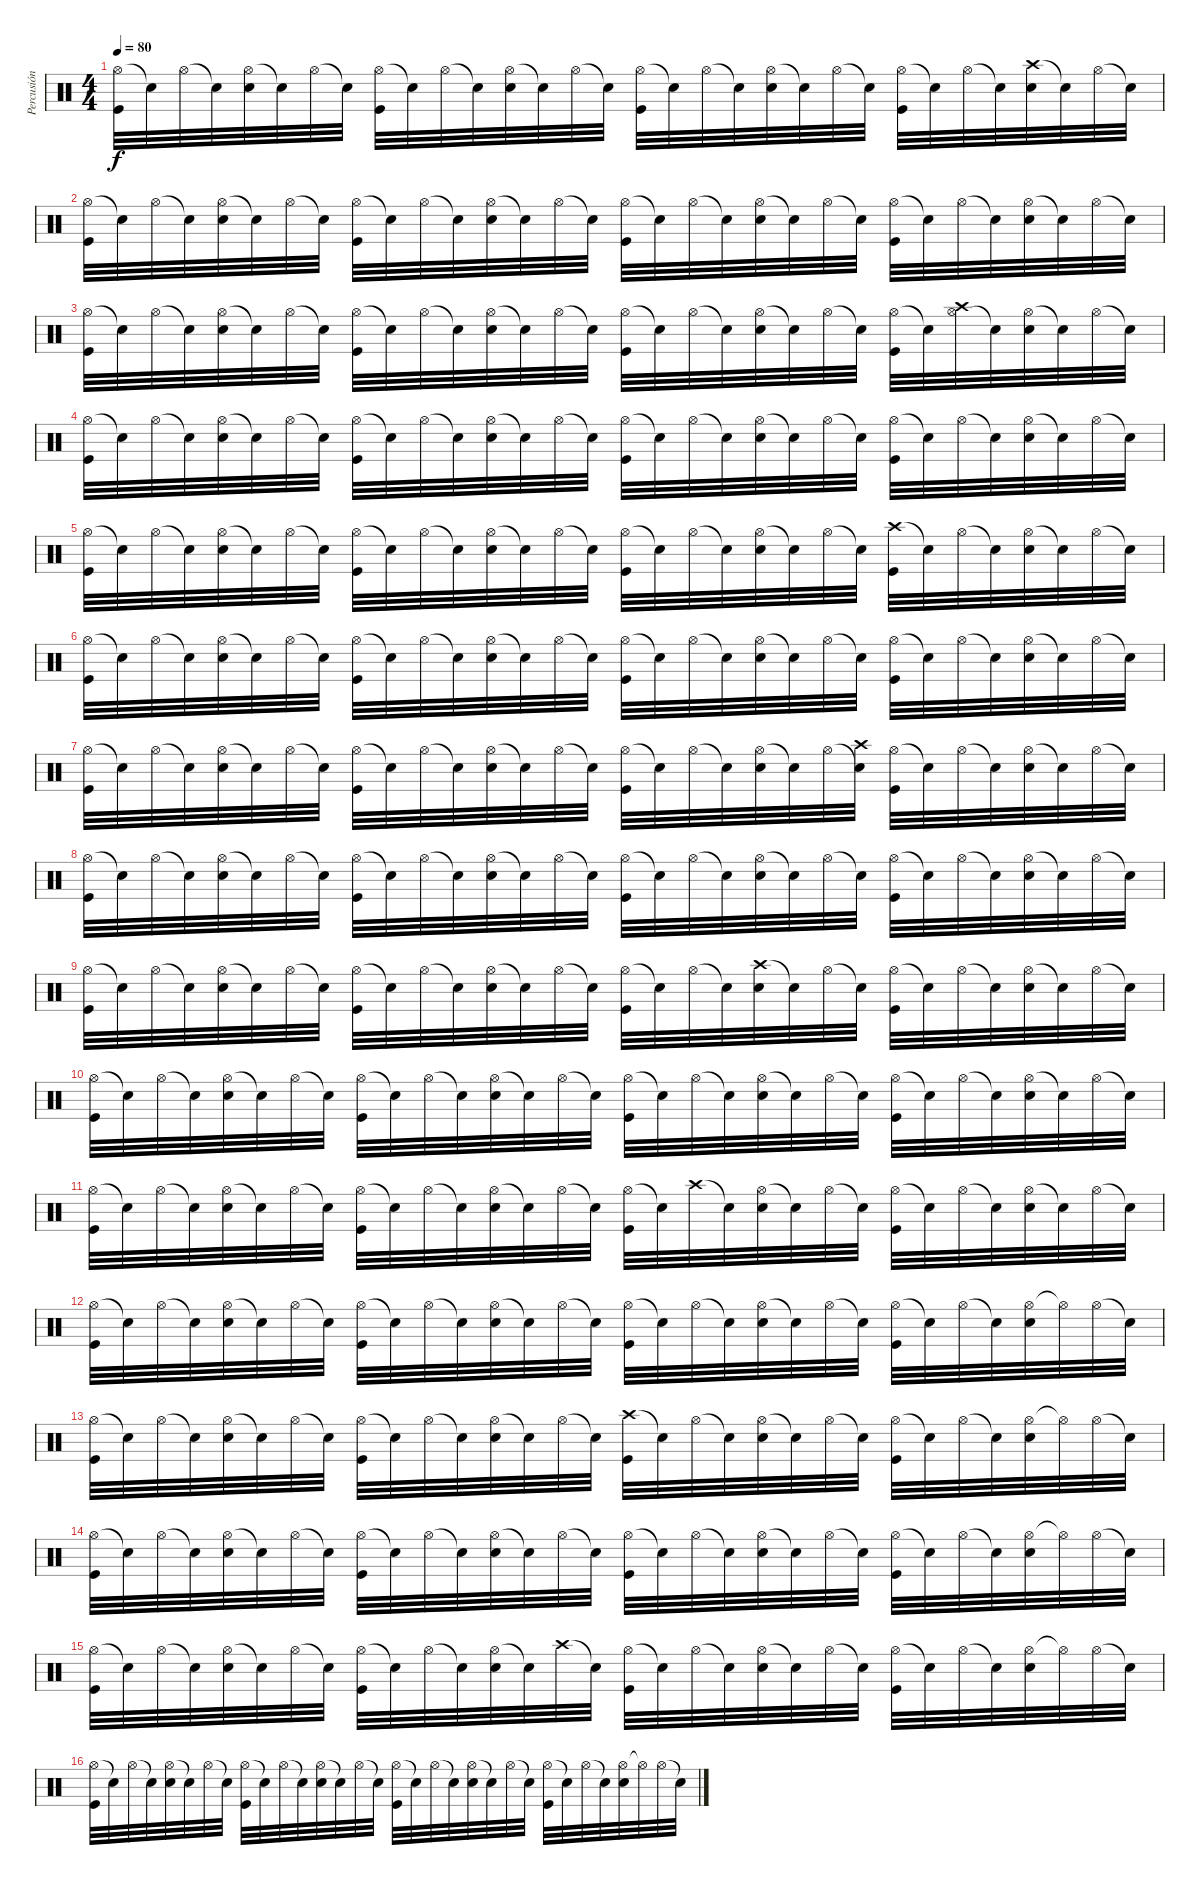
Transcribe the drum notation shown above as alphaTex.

\track ("Percusión" "Percusión") {instrument percussion}
\staff {score}
\articulation defaults
\ts (4 4)
\tempo 80
\clef neutral
\ks c
("Hi-Hat (open)" "Kick (hit)").32{dy f} "Snare (hit)"{t}.32 "Hi-Hat (open)".32 "Snare (hit)"{t}.32 ("Hi-Hat (open)" "Electric Snare (hit)").32 "Snare (hit)"{t}.32 "Hi-Hat (open)".32 "Snare (hit)"{t}.32 ("Hi-Hat (open)" "Kick (hit)").32 "Snare (hit)"{t}.32 "Hi-Hat (open)".32 "Snare (hit)"{t}.32 ("Hi-Hat (open)" "Electric Snare (hit)").32 "Snare (hit)"{t}.32 "Hi-Hat (open)".32 "Snare (hit)"{t}.32 ("Hi-Hat (open)" "Kick (hit)").32 "Snare (hit)"{t}.32 "Hi-Hat (open)".32 "Snare (hit)"{t}.32 ("Hi-Hat (open)" "Electric Snare (hit)").32 "Snare (hit)"{t}.32 "Hi-Hat (open)".32 "Snare (hit)"{t}.32 ("Hi-Hat (open)" "Kick (hit)").32 "Snare (hit)"{t}.32 "Hi-Hat (open)".32 "Snare (hit)"{t}.32 ("Crash high (hit)" "Electric Snare (hit)").32 "Snare (hit)"{t}.32 "Hi-Hat (open)".32 "Snare (hit)"{t}.32 |
("Hi-Hat (open)" "Kick (hit)").32 "Snare (hit)"{t}.32 "Hi-Hat (open)".32 "Snare (hit)"{t}.32 ("Hi-Hat (open)" "Electric Snare (hit)").32 "Snare (hit)"{t}.32 "Hi-Hat (open)".32 "Snare (hit)"{t}.32 ("Hi-Hat (open)" "Kick (hit)").32 "Snare (hit)"{t}.32 "Hi-Hat (open)".32 "Snare (hit)"{t}.32 ("Hi-Hat (open)" "Electric Snare (hit)").32 "Snare (hit)"{t}.32 "Hi-Hat (open)".32 "Snare (hit)"{t}.32 ("Hi-Hat (open)" "Kick (hit)").32 "Snare (hit)"{t}.32 "Hi-Hat (open)".32 "Snare (hit)"{t}.32 ("Hi-Hat (open)" "Electric Snare (hit)").32 "Snare (hit)"{t}.32 "Hi-Hat (open)".32 "Snare (hit)"{t}.32 ("Hi-Hat (open)" "Kick (hit)").32 "Snare (hit)"{t}.32 "Hi-Hat (open)".32 "Snare (hit)"{t}.32 ("Hi-Hat (open)" "Electric Snare (hit)").32 "Snare (hit)"{t}.32 "Hi-Hat (open)".32 "Snare (hit)"{t}.32 |
("Hi-Hat (open)" "Kick (hit)").32 "Snare (hit)"{t}.32 "Hi-Hat (open)".32 "Snare (hit)"{t}.32 ("Hi-Hat (open)" "Electric Snare (hit)").32 "Snare (hit)"{t}.32 "Hi-Hat (open)".32 "Snare (hit)"{t}.32 ("Hi-Hat (open)" "Kick (hit)").32 "Snare (hit)"{t}.32 "Hi-Hat (open)".32 "Snare (hit)"{t}.32 ("Hi-Hat (open)" "Electric Snare (hit)").32 "Snare (hit)"{t}.32 "Hi-Hat (open)".32 "Snare (hit)"{t}.32 ("Hi-Hat (open)" "Kick (hit)").32 "Snare (hit)"{t}.32 "Hi-Hat (open)".32 "Snare (hit)"{t}.32 ("Hi-Hat (open)" "Electric Snare (hit)").32 "Snare (hit)"{t}.32 "Hi-Hat (open)".32 "Snare (hit)"{t}.32 ("Hi-Hat (open)" "Kick (hit)").32 "Snare (hit)"{t}.32 ("Hi-Hat (open)" "Crash high (hit)").32 "Snare (hit)"{t}.32 ("Hi-Hat (open)" "Electric Snare (hit)").32 "Snare (hit)"{t}.32 "Hi-Hat (open)".32 "Snare (hit)"{t}.32 |
("Hi-Hat (open)" "Kick (hit)").32 "Snare (hit)"{t}.32 "Hi-Hat (open)".32 "Snare (hit)"{t}.32 ("Hi-Hat (open)" "Electric Snare (hit)").32 "Snare (hit)"{t}.32 "Hi-Hat (open)".32 "Snare (hit)"{t}.32 ("Hi-Hat (open)" "Kick (hit)").32 "Snare (hit)"{t}.32 "Hi-Hat (open)".32 "Snare (hit)"{t}.32 ("Hi-Hat (open)" "Electric Snare (hit)").32 "Snare (hit)"{t}.32 "Hi-Hat (open)".32 "Snare (hit)"{t}.32 ("Hi-Hat (open)" "Kick (hit)").32 "Snare (hit)"{t}.32 "Hi-Hat (open)".32 "Snare (hit)"{t}.32 ("Hi-Hat (open)" "Electric Snare (hit)").32 "Snare (hit)"{t}.32 "Hi-Hat (open)".32 "Snare (hit)"{t}.32 ("Hi-Hat (open)" "Kick (hit)").32 "Snare (hit)"{t}.32 "Hi-Hat (open)".32 "Snare (hit)"{t}.32 ("Hi-Hat (open)" "Electric Snare (hit)").32 "Snare (hit)"{t}.32 "Hi-Hat (open)".32 "Snare (hit)"{t}.32 |
("Hi-Hat (open)" "Kick (hit)").32 "Snare (hit)"{t}.32 "Hi-Hat (open)".32 "Snare (hit)"{t}.32 ("Hi-Hat (open)" "Electric Snare (hit)").32 "Snare (hit)"{t}.32 "Hi-Hat (open)".32 "Snare (hit)"{t}.32 ("Hi-Hat (open)" "Kick (hit)").32 "Snare (hit)"{t}.32 "Hi-Hat (open)".32 "Snare (hit)"{t}.32 ("Hi-Hat (open)" "Electric Snare (hit)").32 "Snare (hit)"{t}.32 "Hi-Hat (open)".32 "Snare (hit)"{t}.32 ("Hi-Hat (open)" "Kick (hit)").32 "Snare (hit)"{t}.32 "Hi-Hat (open)".32 "Snare (hit)"{t}.32 ("Hi-Hat (open)" "Electric Snare (hit)").32 "Snare (hit)"{t}.32 "Hi-Hat (open)".32 "Snare (hit)"{t}.32 ("Crash high (hit)" "Kick (hit)").32 "Snare (hit)"{t}.32 "Hi-Hat (open)".32 "Snare (hit)"{t}.32 ("Hi-Hat (open)" "Electric Snare (hit)").32 "Snare (hit)"{t}.32 "Hi-Hat (open)".32 "Snare (hit)"{t}.32 |
("Hi-Hat (open)" "Kick (hit)").32 "Snare (hit)"{t}.32 "Hi-Hat (open)".32 "Snare (hit)"{t}.32 ("Hi-Hat (open)" "Electric Snare (hit)").32 "Snare (hit)"{t}.32 "Hi-Hat (open)".32 "Snare (hit)"{t}.32 ("Hi-Hat (open)" "Kick (hit)").32 "Snare (hit)"{t}.32 "Hi-Hat (open)".32 "Snare (hit)"{t}.32 ("Hi-Hat (open)" "Electric Snare (hit)").32 "Snare (hit)"{t}.32 "Hi-Hat (open)".32 "Snare (hit)"{t}.32 ("Hi-Hat (open)" "Kick (hit)").32 "Snare (hit)"{t}.32 "Hi-Hat (open)".32 "Snare (hit)"{t}.32 ("Hi-Hat (open)" "Electric Snare (hit)").32 "Snare (hit)"{t}.32 "Hi-Hat (open)".32 "Snare (hit)"{t}.32 ("Hi-Hat (open)" "Kick (hit)").32 "Snare (hit)"{t}.32 "Hi-Hat (open)".32 "Snare (hit)"{t}.32 ("Hi-Hat (open)" "Electric Snare (hit)").32 "Snare (hit)"{t}.32 "Hi-Hat (open)".32 "Snare (hit)"{t}.32 |
("Hi-Hat (open)" "Kick (hit)").32 "Snare (hit)"{t}.32 "Hi-Hat (open)".32 "Snare (hit)"{t}.32 ("Hi-Hat (open)" "Electric Snare (hit)").32 "Snare (hit)"{t}.32 "Hi-Hat (open)".32 "Snare (hit)"{t}.32 ("Hi-Hat (open)" "Kick (hit)").32 "Snare (hit)"{t}.32 "Hi-Hat (open)".32 "Snare (hit)"{t}.32 ("Hi-Hat (open)" "Electric Snare (hit)").32 "Snare (hit)"{t}.32 "Hi-Hat (open)".32 "Snare (hit)"{t}.32 ("Hi-Hat (open)" "Kick (hit)").32 "Snare (hit)"{t}.32 "Hi-Hat (open)".32 "Snare (hit)"{t}.32 ("Hi-Hat (open)" "Electric Snare (hit)").32 "Snare (hit)"{t}.32 "Hi-Hat (open)".32 ("Snare (hit)"{t} "Crash high (hit)").32 ("Hi-Hat (open)" "Kick (hit)").32 "Snare (hit)"{t}.32 "Hi-Hat (open)".32 "Snare (hit)"{t}.32 ("Hi-Hat (open)" "Electric Snare (hit)").32 "Snare (hit)"{t}.32 "Hi-Hat (open)".32 "Snare (hit)"{t}.32 |
("Hi-Hat (open)" "Kick (hit)").32 "Snare (hit)"{t}.32 "Hi-Hat (open)".32 "Snare (hit)"{t}.32 ("Hi-Hat (open)" "Electric Snare (hit)").32 "Snare (hit)"{t}.32 "Hi-Hat (open)".32 "Snare (hit)"{t}.32 ("Hi-Hat (open)" "Kick (hit)").32 "Snare (hit)"{t}.32 "Hi-Hat (open)".32 "Snare (hit)"{t}.32 ("Hi-Hat (open)" "Electric Snare (hit)").32 "Snare (hit)"{t}.32 "Hi-Hat (open)".32 "Snare (hit)"{t}.32 ("Hi-Hat (open)" "Kick (hit)").32 "Snare (hit)"{t}.32 "Hi-Hat (open)".32 "Snare (hit)"{t}.32 ("Hi-Hat (open)" "Electric Snare (hit)").32 "Snare (hit)"{t}.32 "Hi-Hat (open)".32 "Snare (hit)"{t}.32 ("Hi-Hat (open)" "Kick (hit)").32 "Snare (hit)"{t}.32 "Hi-Hat (open)".32 "Snare (hit)"{t}.32 ("Hi-Hat (open)" "Electric Snare (hit)").32 "Snare (hit)"{t}.32 "Hi-Hat (open)".32 "Snare (hit)"{t}.32 |
("Hi-Hat (open)" "Kick (hit)").32 "Snare (hit)"{t}.32 "Hi-Hat (open)".32 "Snare (hit)"{t}.32 ("Hi-Hat (open)" "Electric Snare (hit)").32 "Snare (hit)"{t}.32 "Hi-Hat (open)".32 "Snare (hit)"{t}.32 ("Hi-Hat (open)" "Kick (hit)").32 "Snare (hit)"{t}.32 "Hi-Hat (open)".32 "Snare (hit)"{t}.32 ("Hi-Hat (open)" "Electric Snare (hit)").32 "Snare (hit)"{t}.32 "Hi-Hat (open)".32 "Snare (hit)"{t}.32 ("Hi-Hat (open)" "Kick (hit)").32 "Snare (hit)"{t}.32 "Hi-Hat (open)".32 "Snare (hit)"{t}.32 ("Crash high (hit)" "Electric Snare (hit)").32 "Snare (hit)"{t}.32 "Hi-Hat (open)".32 "Snare (hit)"{t}.32 ("Hi-Hat (open)" "Kick (hit)").32 "Snare (hit)"{t}.32 "Hi-Hat (open)".32 "Snare (hit)"{t}.32 ("Hi-Hat (open)" "Electric Snare (hit)").32 "Snare (hit)"{t}.32 "Hi-Hat (open)".32 "Snare (hit)"{t}.32 |
("Hi-Hat (open)" "Kick (hit)").32 "Snare (hit)"{t}.32 "Hi-Hat (open)".32 "Snare (hit)"{t}.32 ("Hi-Hat (open)" "Electric Snare (hit)").32 "Snare (hit)"{t}.32 "Hi-Hat (open)".32 "Snare (hit)"{t}.32 ("Hi-Hat (open)" "Kick (hit)").32 "Snare (hit)"{t}.32 "Hi-Hat (open)".32 "Snare (hit)"{t}.32 ("Hi-Hat (open)" "Electric Snare (hit)").32 "Snare (hit)"{t}.32 "Hi-Hat (open)".32 "Snare (hit)"{t}.32 ("Hi-Hat (open)" "Kick (hit)").32 "Snare (hit)"{t}.32 "Hi-Hat (open)".32 "Snare (hit)"{t}.32 ("Hi-Hat (open)" "Electric Snare (hit)").32 "Snare (hit)"{t}.32 "Hi-Hat (open)".32 "Snare (hit)"{t}.32 ("Hi-Hat (open)" "Kick (hit)").32 "Snare (hit)"{t}.32 "Hi-Hat (open)".32 "Snare (hit)"{t}.32 ("Hi-Hat (open)" "Electric Snare (hit)").32 "Snare (hit)"{t}.32 "Hi-Hat (open)".32 "Snare (hit)"{t}.32 |
("Hi-Hat (open)" "Kick (hit)").32 "Snare (hit)"{t}.32 "Hi-Hat (open)".32 "Snare (hit)"{t}.32 ("Hi-Hat (open)" "Electric Snare (hit)").32 "Snare (hit)"{t}.32 "Hi-Hat (open)".32 "Snare (hit)"{t}.32 ("Hi-Hat (open)" "Kick (hit)").32 "Snare (hit)"{t}.32 "Hi-Hat (open)".32 "Snare (hit)"{t}.32 ("Hi-Hat (open)" "Electric Snare (hit)").32 "Snare (hit)"{t}.32 "Hi-Hat (open)".32 "Snare (hit)"{t}.32 ("Hi-Hat (open)" "Kick (hit)").32 "Snare (hit)"{t}.32 "Crash high (hit)".32 "Snare (hit)"{t}.32 ("Hi-Hat (open)" "Electric Snare (hit)").32 "Snare (hit)"{t}.32 "Hi-Hat (open)".32 "Snare (hit)"{t}.32 ("Hi-Hat (open)" "Kick (hit)").32 "Snare (hit)"{t}.32 "Hi-Hat (open)".32 "Snare (hit)"{t}.32 ("Hi-Hat (open)" "Electric Snare (hit)").32 "Snare (hit)"{t}.32 "Hi-Hat (open)".32 "Snare (hit)"{t}.32 |
("Hi-Hat (open)" "Kick (hit)").32 "Snare (hit)"{t}.32 "Hi-Hat (open)".32 "Snare (hit)"{t}.32 ("Hi-Hat (open)" "Electric Snare (hit)").32 "Snare (hit)"{t}.32 "Hi-Hat (open)".32 "Snare (hit)"{t}.32 ("Hi-Hat (open)" "Kick (hit)").32 "Snare (hit)"{t}.32 "Hi-Hat (open)".32 "Snare (hit)"{t}.32 ("Hi-Hat (open)" "Electric Snare (hit)").32 "Snare (hit)"{t}.32 "Hi-Hat (open)".32 "Snare (hit)"{t}.32 ("Hi-Hat (open)" "Kick (hit)").32 "Snare (hit)"{t}.32 "Hi-Hat (open)".32 "Snare (hit)"{t}.32 ("Hi-Hat (open)" "Electric Snare (hit)").32 "Snare (hit)"{t}.32 "Hi-Hat (open)".32 "Snare (hit)"{t}.32 ("Hi-Hat (open)" "Kick (hit)").32 "Snare (hit)"{t}.32 "Hi-Hat (open)".32 "Snare (hit)"{t}.32 ("Hi-Hat (open)" "Electric Snare (hit)").32 "Hi-Hat (open)"{t}.32 "Hi-Hat (open)".32 "Snare (hit)"{t}.32 |
("Hi-Hat (open)" "Kick (hit)").32 "Snare (hit)"{t}.32 "Hi-Hat (open)".32 "Snare (hit)"{t}.32 ("Hi-Hat (open)" "Electric Snare (hit)").32 "Snare (hit)"{t}.32 "Hi-Hat (open)".32 "Snare (hit)"{t}.32 ("Hi-Hat (open)" "Kick (hit)").32 "Snare (hit)"{t}.32 "Hi-Hat (open)".32 "Snare (hit)"{t}.32 ("Hi-Hat (open)" "Electric Snare (hit)").32 "Snare (hit)"{t}.32 "Hi-Hat (open)".32 "Snare (hit)"{t}.32 ("Crash high (hit)" "Kick (hit)").32 "Snare (hit)"{t}.32 "Hi-Hat (open)".32 "Snare (hit)"{t}.32 ("Hi-Hat (open)" "Electric Snare (hit)").32 "Snare (hit)"{t}.32 "Hi-Hat (open)".32 "Snare (hit)"{t}.32 ("Hi-Hat (open)" "Kick (hit)").32 "Snare (hit)"{t}.32 "Hi-Hat (open)".32 "Snare (hit)"{t}.32 ("Hi-Hat (open)" "Electric Snare (hit)").32 "Hi-Hat (open)"{t}.32 "Hi-Hat (open)".32 "Snare (hit)"{t}.32 |
("Hi-Hat (open)" "Kick (hit)").32 "Snare (hit)"{t}.32 "Hi-Hat (open)".32 "Snare (hit)"{t}.32 ("Hi-Hat (open)" "Electric Snare (hit)").32 "Snare (hit)"{t}.32 "Hi-Hat (open)".32 "Snare (hit)"{t}.32 ("Hi-Hat (open)" "Kick (hit)").32 "Snare (hit)"{t}.32 "Hi-Hat (open)".32 "Snare (hit)"{t}.32 ("Hi-Hat (open)" "Electric Snare (hit)").32 "Snare (hit)"{t}.32 "Hi-Hat (open)".32 "Snare (hit)"{t}.32 ("Hi-Hat (open)" "Kick (hit)").32 "Snare (hit)"{t}.32 "Hi-Hat (open)".32 "Snare (hit)"{t}.32 ("Hi-Hat (open)" "Electric Snare (hit)").32 "Snare (hit)"{t}.32 "Hi-Hat (open)".32 "Snare (hit)"{t}.32 ("Hi-Hat (open)" "Kick (hit)").32 "Snare (hit)"{t}.32 "Hi-Hat (open)".32 "Snare (hit)"{t}.32 ("Hi-Hat (open)" "Electric Snare (hit)").32 "Hi-Hat (open)"{t}.32 "Hi-Hat (open)".32 "Snare (hit)"{t}.32 |
("Hi-Hat (open)" "Kick (hit)").32 "Snare (hit)"{t}.32 "Hi-Hat (open)".32 "Snare (hit)"{t}.32 ("Hi-Hat (open)" "Electric Snare (hit)").32 "Snare (hit)"{t}.32 "Hi-Hat (open)".32 "Snare (hit)"{t}.32 ("Hi-Hat (open)" "Kick (hit)").32 "Snare (hit)"{t}.32 "Hi-Hat (open)".32 "Snare (hit)"{t}.32 ("Hi-Hat (open)" "Electric Snare (hit)").32 "Snare (hit)"{t}.32 "Crash high (hit)".32 "Snare (hit)"{t}.32 ("Hi-Hat (open)" "Kick (hit)").32 "Snare (hit)"{t}.32 "Hi-Hat (open)".32 "Snare (hit)"{t}.32 ("Hi-Hat (open)" "Electric Snare (hit)").32 "Snare (hit)"{t}.32 "Hi-Hat (open)".32 "Snare (hit)"{t}.32 ("Hi-Hat (open)" "Kick (hit)").32 "Snare (hit)"{t}.32 "Hi-Hat (open)".32 "Snare (hit)"{t}.32 ("Hi-Hat (open)" "Electric Snare (hit)").32 "Hi-Hat (open)"{t}.32 "Hi-Hat (open)".32 "Snare (hit)"{t}.32 |
("Hi-Hat (open)" "Kick (hit)").32 "Snare (hit)"{t}.32 "Hi-Hat (open)".32 "Snare (hit)"{t}.32 ("Hi-Hat (open)" "Electric Snare (hit)").32 "Snare (hit)"{t}.32 "Hi-Hat (open)".32 "Snare (hit)"{t}.32 ("Hi-Hat (open)" "Kick (hit)").32 "Snare (hit)"{t}.32 "Hi-Hat (open)".32 "Snare (hit)"{t}.32 ("Hi-Hat (open)" "Electric Snare (hit)").32 "Snare (hit)"{t}.32 "Hi-Hat (open)".32 "Snare (hit)"{t}.32 ("Hi-Hat (open)" "Kick (hit)").32 "Snare (hit)"{t}.32 "Hi-Hat (open)".32 "Snare (hit)"{t}.32 ("Hi-Hat (open)" "Electric Snare (hit)").32 "Snare (hit)"{t}.32 "Hi-Hat (open)".32 "Snare (hit)"{t}.32 ("Hi-Hat (open)" "Kick (hit)").32 "Snare (hit)"{t}.32 "Hi-Hat (open)".32 "Snare (hit)"{t}.32 ("Hi-Hat (open)" "Electric Snare (hit)").32 "Hi-Hat (open)"{t}.32 "Hi-Hat (open)".32 "Snare (hit)"{t}.32
